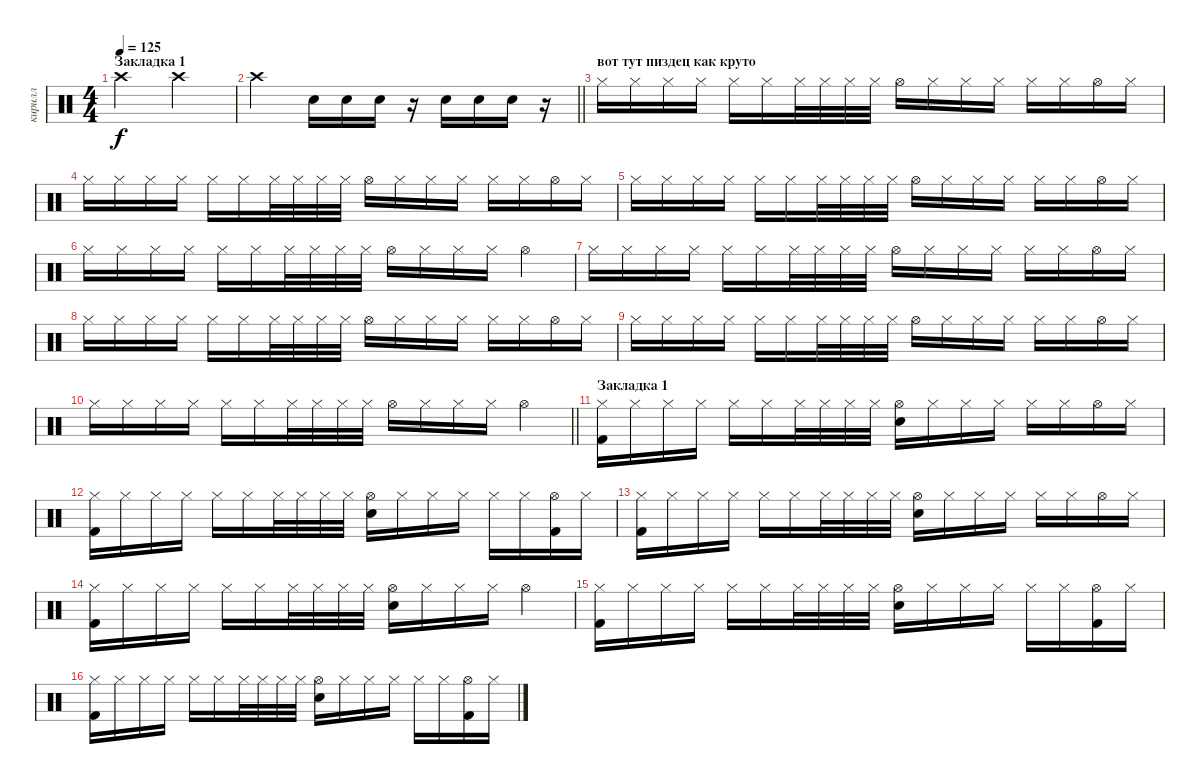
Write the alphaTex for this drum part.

\track ("кирилл" "кирилл") {instrument percussion}
\staff {score}
\articulation defaults
\ts (4 4)
\section ("" "Закладка 1")
\tempo 125
\clef neutral
\ks c "Crash high (hit)".2{dy f} "Crash high (hit)".2
|
\barLineRight lightlight "Crash high (hit)".2 "Electric Snare (hit)".16 "Electric Snare (hit)".16 "Electric Snare (hit)".16
r.16 "Electric Snare (hit)".16 "Electric Snare (hit)".16 "Electric Snare (hit)".16 r.16 |
\section ("" "вот тут пиздец как круто")
"Hi-Hat (closed)".16 "Hi-Hat (closed)".16 "Hi-Hat (closed)".16 "Hi-Hat (closed)".16 "Hi-Hat (closed)".16 "Hi-Hat (closed)".16 "Hi-Hat (closed)".32 "Hi-Hat (closed)".32 "Hi-Hat (closed)".32 "Hi-Hat (closed)".32 "Hi-Hat (open)".16 "Hi-Hat (closed)".16 "Hi-Hat (closed)".16 "Hi-Hat (closed)".16 "Hi-Hat (closed)".16 "Hi-Hat (closed)".16 "Hi-Hat (open)".16 "Hi-Hat (closed)".16 |
"Hi-Hat (closed)".16 "Hi-Hat (closed)".16 "Hi-Hat (closed)".16 "Hi-Hat (closed)".16 "Hi-Hat (closed)".16 "Hi-Hat (closed)".16 "Hi-Hat (closed)".32 "Hi-Hat (closed)".32 "Hi-Hat (closed)".32 "Hi-Hat (closed)".32 "Hi-Hat (open)".16 "Hi-Hat (closed)".16 "Hi-Hat (closed)".16 "Hi-Hat (closed)".16 "Hi-Hat (closed)".16 "Hi-Hat (closed)".16 "Hi-Hat (open)".16 "Hi-Hat (closed)".16 |
"Hi-Hat (closed)".16 "Hi-Hat (closed)".16 "Hi-Hat (closed)".16 "Hi-Hat (closed)".16 "Hi-Hat (closed)".16 "Hi-Hat (closed)".16 "Hi-Hat (closed)".32 "Hi-Hat (closed)".32 "Hi-Hat (closed)".32 "Hi-Hat (closed)".32 "Hi-Hat (open)".16 "Hi-Hat (closed)".16 "Hi-Hat (closed)".16 "Hi-Hat (closed)".16 "Hi-Hat (closed)".16 "Hi-Hat (closed)".16 "Hi-Hat (open)".16 "Hi-Hat (closed)".16 |
"Hi-Hat (closed)".16 "Hi-Hat (closed)".16 "Hi-Hat (closed)".16 "Hi-Hat (closed)".16 "Hi-Hat (closed)".16 "Hi-Hat (closed)".16 "Hi-Hat (closed)".32 "Hi-Hat (closed)".32 "Hi-Hat (closed)".32 "Hi-Hat (closed)".32 "Hi-Hat (open)".16 "Hi-Hat (closed)".16 "Hi-Hat (closed)".16 "Hi-Hat (closed)".16 "Hi-Hat (open)".4 |
"Hi-Hat (closed)".16 "Hi-Hat (closed)".16 "Hi-Hat (closed)".16 "Hi-Hat (closed)".16 "Hi-Hat (closed)".16 "Hi-Hat (closed)".16 "Hi-Hat (closed)".32 "Hi-Hat (closed)".32 "Hi-Hat (closed)".32 "Hi-Hat (closed)".32 "Hi-Hat (open)".16 "Hi-Hat (closed)".16 "Hi-Hat (closed)".16 "Hi-Hat (closed)".16 "Hi-Hat (closed)".16 "Hi-Hat (closed)".16 "Hi-Hat (open)".16 "Hi-Hat (closed)".16 |
"Hi-Hat (closed)".16 "Hi-Hat (closed)".16 "Hi-Hat (closed)".16 "Hi-Hat (closed)".16 "Hi-Hat (closed)".16 "Hi-Hat (closed)".16 "Hi-Hat (closed)".32 "Hi-Hat (closed)".32 "Hi-Hat (closed)".32 "Hi-Hat (closed)".32 "Hi-Hat (open)".16 "Hi-Hat (closed)".16 "Hi-Hat (closed)".16 "Hi-Hat (closed)".16 "Hi-Hat (closed)".16 "Hi-Hat (closed)".16 "Hi-Hat (open)".16 "Hi-Hat (closed)".16 |
"Hi-Hat (closed)".16 "Hi-Hat (closed)".16 "Hi-Hat (closed)".16 "Hi-Hat (closed)".16 "Hi-Hat (closed)".16 "Hi-Hat (closed)".16 "Hi-Hat (closed)".32 "Hi-Hat (closed)".32 "Hi-Hat (closed)".32 "Hi-Hat (closed)".32 "Hi-Hat (open)".16 "Hi-Hat (closed)".16 "Hi-Hat (closed)".16 "Hi-Hat (closed)".16 "Hi-Hat (closed)".16 "Hi-Hat (closed)".16 "Hi-Hat (open)".16 "Hi-Hat (closed)".16 |
\barLineRight lightlight "Hi-Hat (closed)".16 "Hi-Hat (closed)".16 "Hi-Hat (closed)".16 "Hi-Hat (closed)".16 "Hi-Hat (closed)".16 "Hi-Hat (closed)".16 "Hi-Hat (closed)".32 "Hi-Hat (closed)".32 "Hi-Hat (closed)".32 "Hi-Hat (closed)".32 "Hi-Hat (open)".16 "Hi-Hat (closed)".16 "Hi-Hat (closed)".16 "Hi-Hat (closed)".16 "Hi-Hat (open)".4
|
\section ("" "Закладка 1")
("Hi-Hat (closed)" "Kick (hit) 2").16 "Hi-Hat (closed)".16 "Hi-Hat (closed)".16 "Hi-Hat (closed)".16 "Hi-Hat (closed)".16 "Hi-Hat (closed)".16 "Hi-Hat (closed)".32 "Hi-Hat (closed)".32 "Hi-Hat (closed)".32 "Hi-Hat (closed)".32 ("Hi-Hat (open)" "Electric Snare (hit)").16 "Hi-Hat (closed)".16 "Hi-Hat (closed)".16 "Hi-Hat (closed)".16 "Hi-Hat (closed)".16 "Hi-Hat (closed)".16 "Hi-Hat (open)".16 "Hi-Hat (closed)".16 |
("Hi-Hat (closed)" "Kick (hit) 2").16 "Hi-Hat (closed)".16 "Hi-Hat (closed)".16 "Hi-Hat (closed)".16 "Hi-Hat (closed)".16 "Hi-Hat (closed)".16 "Hi-Hat (closed)".32 "Hi-Hat (closed)".32 "Hi-Hat (closed)".32 "Hi-Hat (closed)".32 ("Hi-Hat (open)" "Electric Snare (hit)").16 "Hi-Hat (closed)".16 "Hi-Hat (closed)".16 "Hi-Hat (closed)".16 "Hi-Hat (closed)".16 "Hi-Hat (closed)".16 ("Hi-Hat (open)" "Kick (hit) 2").16 "Hi-Hat (closed)".16 |
("Hi-Hat (closed)" "Kick (hit) 2").16 "Hi-Hat (closed)".16 "Hi-Hat (closed)".16 "Hi-Hat (closed)".16 "Hi-Hat (closed)".16 "Hi-Hat (closed)".16 "Hi-Hat (closed)".32 "Hi-Hat (closed)".32 "Hi-Hat (closed)".32 "Hi-Hat (closed)".32 ("Hi-Hat (open)" "Electric Snare (hit)").16 "Hi-Hat (closed)".16 "Hi-Hat (closed)".16 "Hi-Hat (closed)".16 "Hi-Hat (closed)".16 "Hi-Hat (closed)".16 "Hi-Hat (open)".16 "Hi-Hat (closed)".16 |
("Hi-Hat (closed)" "Kick (hit) 2").16 "Hi-Hat (closed)".16 "Hi-Hat (closed)".16 "Hi-Hat (closed)".16 "Hi-Hat (closed)".16 "Hi-Hat (closed)".16 "Hi-Hat (closed)".32 "Hi-Hat (closed)".32 "Hi-Hat (closed)".32 "Hi-Hat (closed)".32 ("Hi-Hat (open)" "Electric Snare (hit)").16 "Hi-Hat (closed)".16 "Hi-Hat (closed)".16 "Hi-Hat (closed)".16 "Hi-Hat (open)".4 |
("Hi-Hat (closed)" "Kick (hit) 2").16 "Hi-Hat (closed)".16 "Hi-Hat (closed)".16 "Hi-Hat (closed)".16 "Hi-Hat (closed)".16 "Hi-Hat (closed)".16 "Hi-Hat (closed)".32 "Hi-Hat (closed)".32 "Hi-Hat (closed)".32 "Hi-Hat (closed)".32 ("Hi-Hat (open)" "Electric Snare (hit)").16 "Hi-Hat (closed)".16 "Hi-Hat (closed)".16 "Hi-Hat (closed)".16 "Hi-Hat (closed)".16 "Hi-Hat (closed)".16 ("Hi-Hat (open)" "Kick (hit) 2").16 "Hi-Hat (closed)".16 |
("Hi-Hat (closed)" "Kick (hit) 2").16 "Hi-Hat (closed)".16 "Hi-Hat (closed)".16 "Hi-Hat (closed)".16 "Hi-Hat (closed)".16 "Hi-Hat (closed)".16 "Hi-Hat (closed)".32 "Hi-Hat (closed)".32 "Hi-Hat (closed)".32 "Hi-Hat (closed)".32 ("Hi-Hat (open)" "Electric Snare (hit)").16 "Hi-Hat (closed)".16 "Hi-Hat (closed)".16 "Hi-Hat (closed)".16 "Hi-Hat (closed)".16 "Hi-Hat (closed)".16 ("Hi-Hat (open)" "Kick (hit) 2").16 "Hi-Hat (closed)".16
